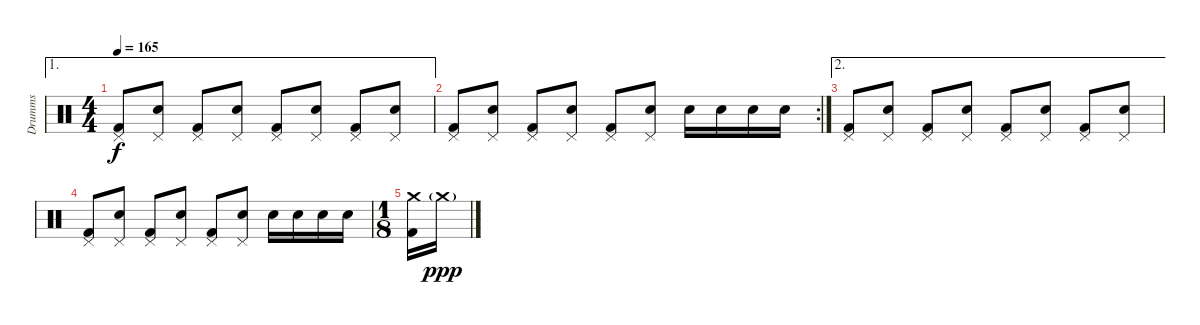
\track ("Drumms" "Drumms") {instrument percussion}
\staff {score}
\articulation defaults
\ae 1
\ts (4 4)
\tempo 165
\clef neutral
\ks c
("Pedal Hi-Hat (hit)" "Kick (hit) 2").8{dy f} ("Pedal Hi-Hat (hit)" "Electric Snare (hit)").8 ("Pedal Hi-Hat (hit)" "Kick (hit) 2").8 ("Pedal Hi-Hat (hit)" "Electric Snare (hit)").8 ("Pedal Hi-Hat (hit)" "Kick (hit) 2").8 ("Pedal Hi-Hat (hit)" "Electric Snare (hit)").8 ("Pedal Hi-Hat (hit)" "Kick (hit) 2").8 ("Pedal Hi-Hat (hit)" "Electric Snare (hit)").8 |
\rc 2
("Pedal Hi-Hat (hit)" "Kick (hit) 2").8 ("Pedal Hi-Hat (hit)" "Electric Snare (hit)").8 ("Pedal Hi-Hat (hit)" "Kick (hit) 2").8 ("Pedal Hi-Hat (hit)" "Electric Snare (hit)").8 ("Pedal Hi-Hat (hit)" "Kick (hit) 2").8 ("Pedal Hi-Hat (hit)" "Electric Snare (hit)").8 "Electric Snare (hit)".16 "Electric Snare (hit)".16 "Electric Snare (hit)".16 "Electric Snare (hit)".16 |
\ae 2
("Pedal Hi-Hat (hit)" "Kick (hit) 2").8 ("Pedal Hi-Hat (hit)" "Electric Snare (hit)").8 ("Pedal Hi-Hat (hit)" "Kick (hit) 2").8 ("Pedal Hi-Hat (hit)" "Electric Snare (hit)").8 ("Pedal Hi-Hat (hit)" "Kick (hit) 2").8 ("Pedal Hi-Hat (hit)" "Electric Snare (hit)").8 ("Pedal Hi-Hat (hit)" "Kick (hit) 2").8 ("Pedal Hi-Hat (hit)" "Electric Snare (hit)").8 |
("Pedal Hi-Hat (hit)" "Kick (hit) 2").8 ("Pedal Hi-Hat (hit)" "Electric Snare (hit)").8 ("Pedal Hi-Hat (hit)" "Kick (hit) 2").8 ("Pedal Hi-Hat (hit)" "Electric Snare (hit)").8 ("Pedal Hi-Hat (hit)" "Kick (hit) 2").8 ("Pedal Hi-Hat (hit)" "Electric Snare (hit)").8 "Electric Snare (hit)".16 "Electric Snare (hit)".16 "Electric Snare (hit)".16 "Electric Snare (hit)".16 |
\ts (1 8)
("Crash medium (hit)" "Kick (hit) 2").16 "Crash medium (hit)"{g}.16{dy ppp}
